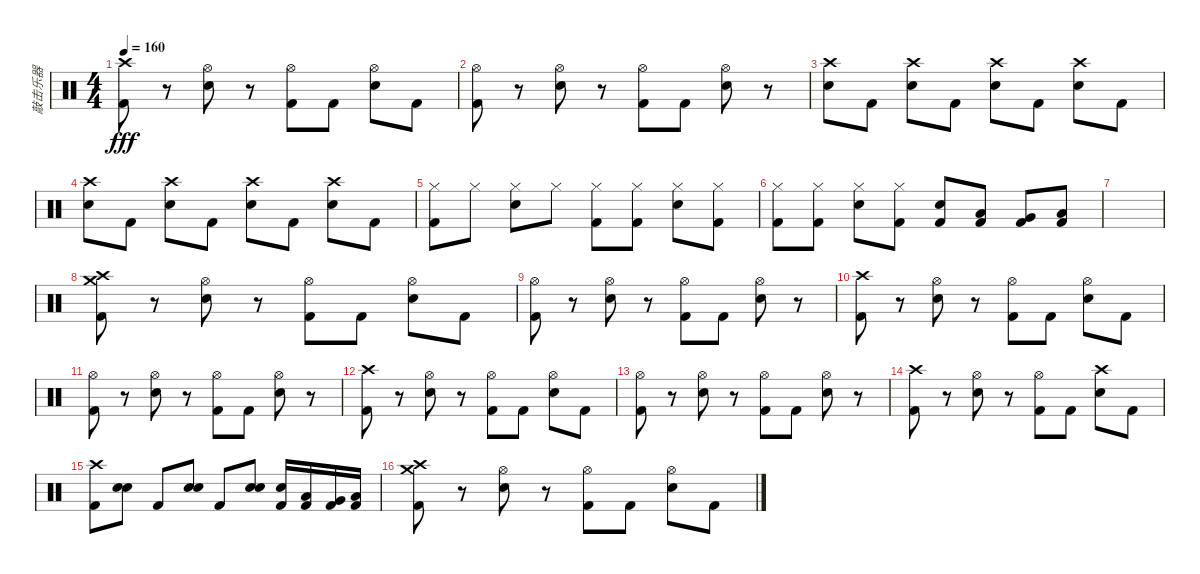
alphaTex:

\track ("敲击乐器" "敲击乐器") {instrument percussion}
\staff {score}
\articulation defaults
\ts (4 4)
\tempo 160
\clef neutral
\ks c
("Crash high (hit)" "Kick (hit) 2").8{dy fff} r.8 ("Hi-Hat (open)" "Electric Snare (hit)").8 r.8 ("Hi-Hat (open)" "Kick (hit) 2").8 "Kick (hit) 2".8 ("Hi-Hat (open)" "Electric Snare (hit)").8 "Kick (hit) 2".8 |
("Hi-Hat (open)" "Kick (hit) 2").8 r.8 ("Hi-Hat (open)" "Electric Snare (hit)").8 r.8 ("Hi-Hat (open)" "Kick (hit) 2").8 "Kick (hit) 2".8 ("Hi-Hat (open)" "Electric Snare (hit)").8 r.8 |
("Crash high (hit)" "Electric Snare (hit)").8 "Kick (hit) 2".8 ("Crash high (hit)" "Electric Snare (hit)").8 "Kick (hit) 2".8 ("Crash high (hit)" "Electric Snare (hit)").8 "Kick (hit) 2".8 ("Crash high (hit)" "Electric Snare (hit)").8 "Kick (hit) 2".8 |
("Crash high (hit)" "Electric Snare (hit)").8 "Kick (hit) 2".8 ("Crash high (hit)" "Electric Snare (hit)").8 "Kick (hit) 2".8 ("Crash high (hit)" "Electric Snare (hit)").8 "Kick (hit) 2".8 ("Crash high (hit)" "Electric Snare (hit)").8 "Kick (hit) 2".8 |
("Hi-Hat (closed)" "Kick (hit) 2").8 "Hi-Hat (closed)".8 ("Hi-Hat (closed)" "Electric Snare (hit)").8 "Hi-Hat (closed)".8 ("Hi-Hat (closed)" "Kick (hit) 2").8 ("Hi-Hat (closed)" "Kick (hit) 2").8 ("Hi-Hat (closed)" "Electric Snare (hit)").8 ("Hi-Hat (closed)" "Kick (hit) 2").8 |
("Hi-Hat (closed)" "Kick (hit) 2").8 ("Hi-Hat (closed)" "Kick (hit) 2").8 ("Hi-Hat (closed)" "Electric Snare (hit)").8 ("Hi-Hat (closed)" "Kick (hit) 2").8 ("Electric Snare (hit)" "Kick (hit) 2").8 ("Low Tom (hit)" "Kick (hit) 2").8 ("Very Low Tom (hit)" "Kick (hit) 2").8 ("Low Floor Tom (hit)" "Kick (hit) 2").8 |
|
("Crash high (hit)" "Crash medium (hit)" "Kick (hit) 2").8 r.8 ("Hi-Hat (open)" "Electric Snare (hit)").8 r.8 ("Hi-Hat (open)" "Kick (hit) 2").8 "Kick (hit) 2".8 ("Hi-Hat (open)" "Electric Snare (hit)").8 "Kick (hit) 2".8 |
("Hi-Hat (open)" "Kick (hit) 2").8 r.8 ("Hi-Hat (open)" "Electric Snare (hit)").8 r.8 ("Hi-Hat (open)" "Kick (hit) 2").8 "Kick (hit) 2".8 ("Hi-Hat (open)" "Electric Snare (hit)").8 r.8 |
("Crash high (hit)" "Kick (hit) 2").8 r.8 ("Hi-Hat (open)" "Electric Snare (hit)").8 r.8 ("Hi-Hat (open)" "Kick (hit) 2").8 "Kick (hit) 2".8 ("Hi-Hat (open)" "Electric Snare (hit)").8 "Kick (hit) 2".8 |
("Hi-Hat (open)" "Kick (hit) 2").8 r.8 ("Hi-Hat (open)" "Electric Snare (hit)").8 r.8 ("Hi-Hat (open)" "Kick (hit) 2").8 "Kick (hit) 2".8 ("Hi-Hat (open)" "Electric Snare (hit)").8 r.8 |
("Crash high (hit)" "Kick (hit) 2").8 r.8 ("Hi-Hat (open)" "Electric Snare (hit)").8 r.8 ("Hi-Hat (open)" "Kick (hit) 2").8 "Kick (hit) 2".8 ("Hi-Hat (open)" "Electric Snare (hit)").8 "Kick (hit) 2".8 |
("Hi-Hat (open)" "Kick (hit) 2").8 r.8 ("Hi-Hat (open)" "Electric Snare (hit)").8 r.8 ("Hi-Hat (open)" "Kick (hit) 2").8 "Kick (hit) 2".8 ("Hi-Hat (open)" "Electric Snare (hit)").8 r.8 |
("Crash high (hit)" "Kick (hit) 2").8 r.8 ("Hi-Hat (open)" "Electric Snare (hit)").8 r.8 ("Hi-Hat (open)" "Kick (hit) 2").8 "Kick (hit) 2".8 ("Crash high (hit)" "Electric Snare (hit)").8 "Kick (hit) 2".8 |
("Crash high (hit)" "Kick (hit) 2").8 ("Snare (hit) 2" "Electric Snare (hit)").8 "Kick (hit) 2".8 ("Snare (hit) 2" "Electric Snare (hit)").8 "Kick (hit) 2".8 ("Snare (hit) 2" "Electric Snare (hit)").8 ("Electric Snare (hit)" "Kick (hit) 2").16 ("Low Tom (hit)" "Kick (hit) 2").16 ("Very Low Tom (hit)" "Kick (hit) 2").16 ("Low Floor Tom (hit)" "Kick (hit) 2").16 |
("Crash high (hit)" "Crash medium (hit)" "Kick (hit) 2").8 r.8 ("Hi-Hat (open)" "Electric Snare (hit)").8 r.8 ("Hi-Hat (open)" "Kick (hit) 2").8 "Kick (hit) 2".8 ("Hi-Hat (open)" "Electric Snare (hit)").8 "Kick (hit) 2".8
